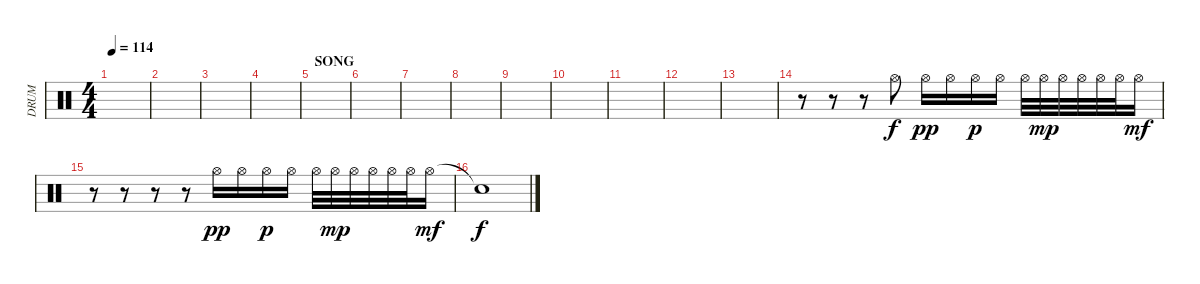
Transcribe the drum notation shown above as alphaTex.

\track ("DRUM" "DRUM") {instrument percussion}
\staff {score}
\articulation defaults
\ts (4 4)
\tempo 114
\clef neutral
\ks c
|
|
|
|
\section ("" "SONG")
|
|
|
|
|
|
|
|
|
r.8 r.8 r.8 "Hi-Hat (open)".8 "Hi-Hat (open)".16{dy pp} "Hi-Hat (open)".16 "Hi-Hat (open)".16{dy p} "Hi-Hat (open)".16 "Hi-Hat (open)".32 "Hi-Hat (open)".32{dy mp} "Hi-Hat (open)".32 "Hi-Hat (open)".32 "Hi-Hat (open)".32 "Hi-Hat (open)".32 "Hi-Hat (open)".16{dy mf} |
r.8 r.8 r.8 r.8 "Hi-Hat (open)".16{dy pp} "Hi-Hat (open)".16 "Hi-Hat (open)".16{dy p} "Hi-Hat (open)".16 "Hi-Hat (open)".32 "Hi-Hat (open)".32{dy mp} "Hi-Hat (open)".32 "Hi-Hat (open)".32 "Hi-Hat (open)".32 "Hi-Hat (open)".32 "Hi-Hat (open)".16{dy mf} |
"Snare (hit)"{t}.1{dy f}
